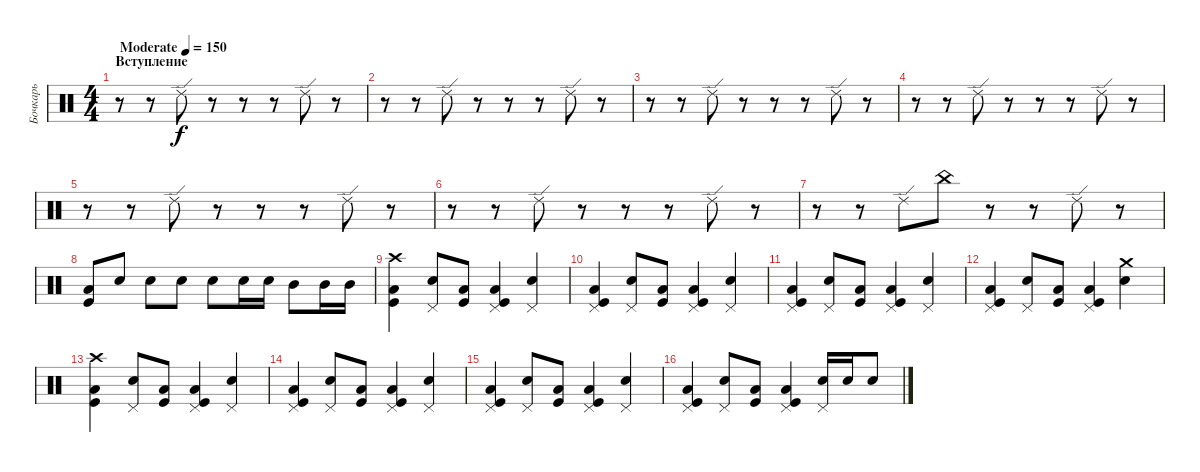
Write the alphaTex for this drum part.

\track ("Бочкарь" "Бочкарь") {instrument percussion}
\staff {score}
\articulation defaults
\ts (4 4)
\section ("" "Вступление")
\tempo (150 "Moderate")
\clef neutral
\ks c
r.8{dy f balance 13} r.8 "Ride (edge) 2".8 r.8 r.8 r.8 "Ride (edge) 2".8 r.8 |
r.8{balance 13} r.8 "Ride (edge) 2".8 r.8 r.8 r.8 "Ride (edge) 2".8 r.8 |
r.8{balance 13} r.8 "Ride (edge) 2".8 r.8 r.8 r.8 "Ride (edge) 2".8 r.8 |
r.8{balance 13} r.8 "Ride (edge) 2".8 r.8 r.8 r.8 "Ride (edge) 2".8 r.8 |
r.8{balance 13} r.8 "Ride (edge) 2".8 r.8 r.8 r.8 "Ride (edge) 2".8 r.8 |
r.8{balance 13} r.8 "Ride (edge) 2".8 r.8 r.8 r.8 "Ride (edge) 2".8 r.8 |
r.8 r.8 "Ride (edge) 2".8 "China (hit)".8 r.8 r.8 "Ride (edge) 2".8 r.8 |
("Low Tom (hit)" "Kick (hit)").8 "Electric Snare (hit)".8 "Snare (hit) 2".8 "Snare (hit) 2".8 "Electric Snare (hit)".8 "Electric Snare (hit)".16 "Electric Snare (hit)".16 "Mid Tom (hit)".8 "Mid Tom (hit)".16 "Mid Tom (hit)".16 |
("Crash high (hit)" "Low Tom (hit)" "Kick (hit)").4 ("Pedal Hi-Hat (hit)" "Electric Snare (hit)").8 ("Low Tom (hit)" "Kick (hit)").8 ("Pedal Hi-Hat (hit)" "Low Tom (hit)" "Kick (hit)").4 ("Pedal Hi-Hat (hit)" "Electric Snare (hit)").4 |
("Pedal Hi-Hat (hit)" "Low Tom (hit)" "Kick (hit)").4 ("Pedal Hi-Hat (hit)" "Electric Snare (hit)").8 ("Low Tom (hit)" "Kick (hit)").8 ("Pedal Hi-Hat (hit)" "Low Tom (hit)" "Kick (hit)").4 ("Pedal Hi-Hat (hit)" "Electric Snare (hit)").4 |
("Pedal Hi-Hat (hit)" "Low Tom (hit)" "Kick (hit)").4 ("Pedal Hi-Hat (hit)" "Electric Snare (hit)").8 ("Low Tom (hit)" "Kick (hit)").8 ("Pedal Hi-Hat (hit)" "Low Tom (hit)" "Kick (hit)").4 ("Pedal Hi-Hat (hit)" "Electric Snare (hit)").4 |
("Pedal Hi-Hat (hit)" "Low Tom (hit)" "Kick (hit)").4 ("Pedal Hi-Hat (hit)" "Electric Snare (hit)").8 ("Low Tom (hit)" "Kick (hit)").8 ("Pedal Hi-Hat (hit)" "Low Tom (hit)" "Kick (hit)").4 ("Crash medium (hit)" "Electric Snare (hit)").4 |
("Crash high (hit)" "Low Tom (hit)" "Kick (hit)").4 ("Pedal Hi-Hat (hit)" "Electric Snare (hit)").8 ("Low Tom (hit)" "Kick (hit)").8 ("Pedal Hi-Hat (hit)" "Low Tom (hit)" "Kick (hit)").4 ("Pedal Hi-Hat (hit)" "Electric Snare (hit)").4 |
("Pedal Hi-Hat (hit)" "Low Tom (hit)" "Kick (hit)").4 ("Pedal Hi-Hat (hit)" "Electric Snare (hit)").8 ("Low Tom (hit)" "Kick (hit)").8 ("Pedal Hi-Hat (hit)" "Low Tom (hit)" "Kick (hit)").4 ("Pedal Hi-Hat (hit)" "Electric Snare (hit)").4 |
("Pedal Hi-Hat (hit)" "Low Tom (hit)" "Kick (hit)").4 ("Pedal Hi-Hat (hit)" "Electric Snare (hit)").8 ("Low Tom (hit)" "Kick (hit)").8 ("Pedal Hi-Hat (hit)" "Low Tom (hit)" "Kick (hit)").4 ("Pedal Hi-Hat (hit)" "Electric Snare (hit)").4 |
("Pedal Hi-Hat (hit)" "Low Tom (hit)" "Kick (hit)").4 ("Pedal Hi-Hat (hit)" "Electric Snare (hit)").8 ("Low Tom (hit)" "Kick (hit)").8 ("Pedal Hi-Hat (hit)" "Low Tom (hit)" "Kick (hit)").4 ("Pedal Hi-Hat (hit)" "Snare (hit) 2").16 "Snare (hit) 2".16 "Electric Snare (hit)".8
